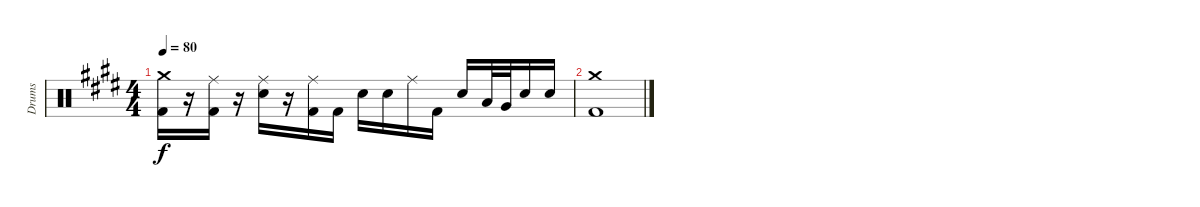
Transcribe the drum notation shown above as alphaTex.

\track ("Drums" "Drums") {instrument percussion}
\staff {score}
\articulation defaults
\ts (4 4)
\tempo 80
\clef neutral
\ks e
("Crash medium (hit)" "Kick (hit) 2").16{dy f} r.16 ("Ride (middle)" "Kick (hit) 2").16 r.16 ("Ride (middle)" "Snare (hit) 2").16 r.16 ("Ride (middle)" "Kick (hit) 2").16 "Kick (hit) 2".16 "Snare (hit) 2".16 "Snare (hit) 2".16 "Ride (middle)".16 "Kick (hit) 2".16 "Snare (hit) 2".16 "Low Tom (hit)".32 "Very Low Tom (hit)".32 "Snare (hit) 2".16 "Snare (hit) 2".16 |
("Crash medium (hit)" "Kick (hit) 2").1
